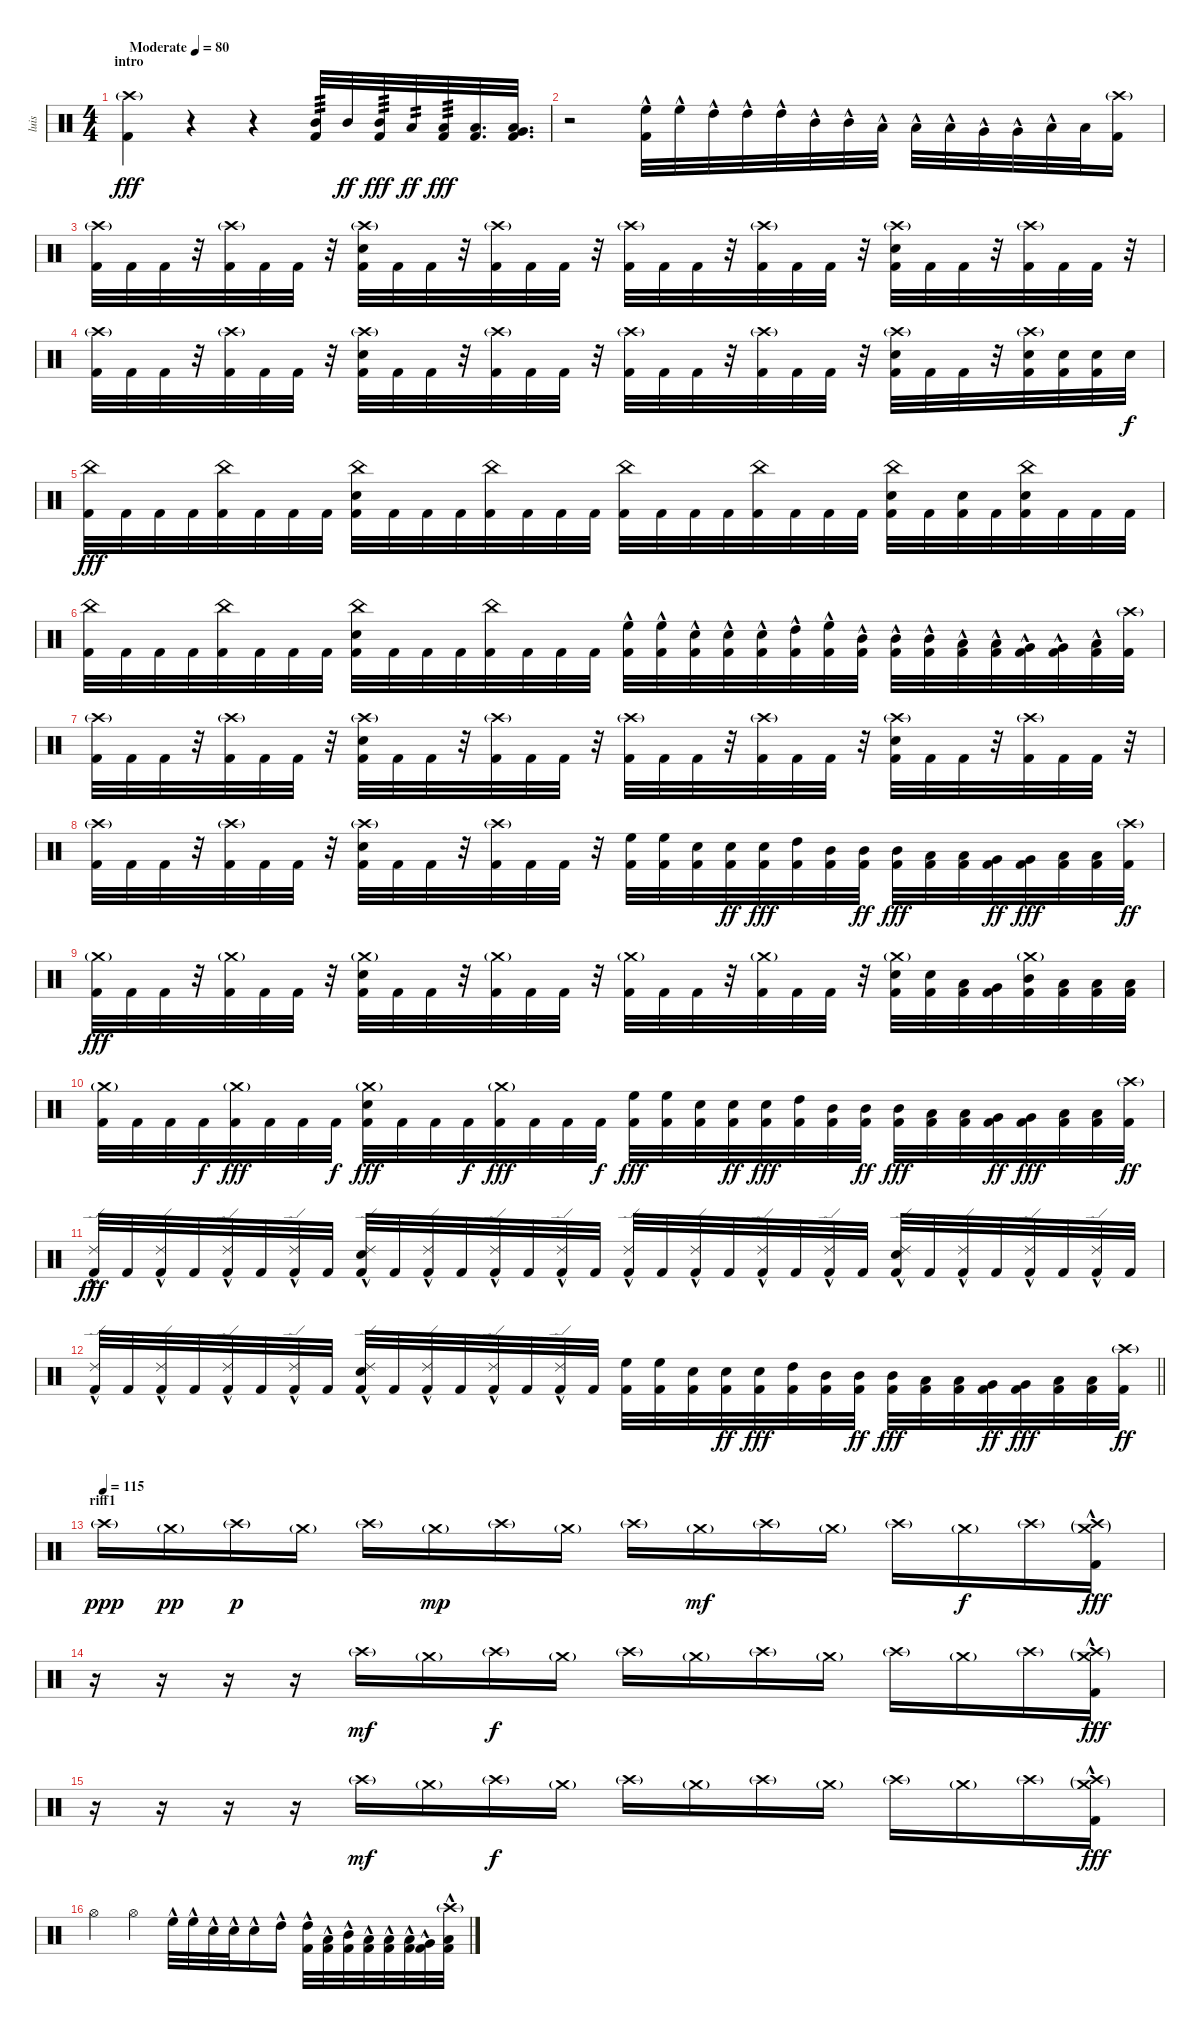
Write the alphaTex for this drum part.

\track ("luis" "luis") {instrument percussion}
\staff {score}
\articulation defaults
\ts (4 4)
\section ("" "intro")
\tempo (80 "Moderate")
\clef neutral
\ks c
("Crash high (hit)"{g} "Kick (hit) 2").4{dy fff} r.4 r.4 ("Mid Tom (hit)" "Kick (hit) 2").32{tp 3} "Mid Tom (hit)".32{dy ff} ("Mid Tom (hit)" "Kick (hit) 2").32{tp 3 dy fff} "Low Tom (hit)".32{tp 2 dy ff} ("Low Tom (hit)" "Kick (hit) 2").32{tp 3 dy fff} ("Low Floor Tom (hit)" "Kick (hit) 2").32{d} ("Low Floor Tom (hit)" "Very Low Tom (hit)" "Kick (hit) 2").32{d} |
r.2 ("High Floor Tom (hit)"{hac} "Kick (hit) 2").32 "High Floor Tom (hit)"{hac}.32 "High Tom (hit)"{hac}.32 "High Tom (hit)"{hac}.32 "High Tom (hit)"{hac}.32 "Mid Tom (hit)"{hac}.32 "Mid Tom (hit)"{hac}.32 "Low Tom (hit)"{hac}.32 "Low Tom (hit)"{hac}.32 "Low Tom (hit)"{hac}.32 "Very Low Tom (hit)"{hac}.32 "Very Low Tom (hit)"{hac}.32 "Low Floor Tom (hit)"{hac}.32 "Low Floor Tom (hit)".32 ("Crash high (hit)"{g} "Kick (hit) 2").16 |
("Crash high (hit)"{g} "Kick (hit) 2").32 "Kick (hit) 2".32 "Kick (hit) 2".32 r.32 ("Crash high (hit)"{g} "Kick (hit) 2").32 "Kick (hit) 2".32 "Kick (hit) 2".32 r.32 ("Crash high (hit)"{g} "Electric Snare (hit)" "Kick (hit) 2").32 "Kick (hit) 2".32 "Kick (hit) 2".32 r.32 ("Crash high (hit)"{g} "Kick (hit) 2").32 "Kick (hit) 2".32 "Kick (hit) 2".32 r.32 ("Crash high (hit)"{g} "Kick (hit) 2").32 "Kick (hit) 2".32 "Kick (hit) 2".32 r.32 ("Crash high (hit)"{g} "Kick (hit) 2").32 "Kick (hit) 2".32 "Kick (hit) 2".32 r.32 ("Crash high (hit)"{g} "Electric Snare (hit)" "Kick (hit) 2").32 "Kick (hit) 2".32 "Kick (hit) 2".32 r.32 ("Crash high (hit)"{g} "Kick (hit) 2").32 "Kick (hit) 2".32 "Kick (hit) 2".32 r.32 |
("Crash high (hit)"{g} "Kick (hit) 2").32 "Kick (hit) 2".32 "Kick (hit) 2".32 r.32 ("Crash high (hit)"{g} "Kick (hit) 2").32 "Kick (hit) 2".32 "Kick (hit) 2".32 r.32 ("Crash high (hit)"{g} "Electric Snare (hit)" "Kick (hit) 2").32 "Kick (hit) 2".32 "Kick (hit) 2".32 r.32 ("Crash high (hit)"{g} "Kick (hit) 2").32 "Kick (hit) 2".32 "Kick (hit) 2".32 r.32 ("Crash high (hit)"{g} "Kick (hit) 2").32 "Kick (hit) 2".32 "Kick (hit) 2".32 r.32 ("Crash high (hit)"{g} "Kick (hit) 2").32 "Kick (hit) 2".32 "Kick (hit) 2".32 r.32 ("Crash high (hit)"{g} "Electric Snare (hit)" "Kick (hit) 2").32 "Kick (hit) 2".32 "Kick (hit) 2".32 r.32 ("Crash high (hit)"{g} "Electric Snare (hit)" "Kick (hit) 2").32 ("Electric Snare (hit)" "Kick (hit) 2").32 ("Electric Snare (hit)" "Kick (hit) 2").32 "Electric Snare (hit)".32{dy f} |
("China (hit)" "Kick (hit) 2").32{dy fff} "Kick (hit) 2".32 "Kick (hit) 2".32 "Kick (hit) 2".32 ("China (hit)" "Kick (hit) 2").32 "Kick (hit) 2".32 "Kick (hit) 2".32 "Kick (hit) 2".32 ("China (hit)" "Electric Snare (hit)" "Kick (hit) 2").32 "Kick (hit) 2".32 "Kick (hit) 2".32 "Kick (hit) 2".32 ("China (hit)" "Kick (hit) 2").32 "Kick (hit) 2".32 "Kick (hit) 2".32 "Kick (hit) 2".32 ("China (hit)" "Kick (hit) 2").32 "Kick (hit) 2".32 "Kick (hit) 2".32 "Kick (hit) 2".32 ("China (hit)" "Kick (hit) 2").32 "Kick (hit) 2".32 "Kick (hit) 2".32 "Kick (hit) 2".32 ("China (hit)" "Electric Snare (hit)" "Kick (hit) 2").32 "Kick (hit) 2".32 ("Electric Snare (hit)" "Kick (hit) 2").32 "Kick (hit) 2".32 ("China (hit)" "Electric Snare (hit)" "Kick (hit) 2").32 "Kick (hit) 2".32 "Kick (hit) 2".32 "Kick (hit) 2".32 |
("China (hit)" "Kick (hit) 2").32 "Kick (hit) 2".32 "Kick (hit) 2".32 "Kick (hit) 2".32 ("China (hit)" "Kick (hit) 2").32 "Kick (hit) 2".32 "Kick (hit) 2".32 "Kick (hit) 2".32 ("China (hit)" "Electric Snare (hit)" "Kick (hit) 2").32 "Kick (hit) 2".32 "Kick (hit) 2".32 "Kick (hit) 2".32 ("China (hit)" "Kick (hit) 2").32 "Kick (hit) 2".32 "Kick (hit) 2".32 "Kick (hit) 2".32 ("High Floor Tom (hit)"{hac} "Kick (hit) 2").32 ("High Floor Tom (hit)"{hac} "Kick (hit) 2").32 ("Electric Snare (hit)"{hac} "Kick (hit) 2").32 ("Electric Snare (hit)"{hac} "Kick (hit) 2").32 ("Electric Snare (hit)"{hac} "Kick (hit) 2").32 ("High Tom (hit)"{hac} "Kick (hit) 2").32 ("High Floor Tom (hit)"{hac} "Kick (hit) 2").32 ("Mid Tom (hit)"{hac} "Kick (hit) 2").32 ("Mid Tom (hit)"{hac} "Kick (hit) 2").32 ("Mid Tom (hit)"{hac} "Kick (hit) 2").32 ("Low Tom (hit)"{hac} "Kick (hit) 2").32 ("Low Tom (hit)"{hac} "Kick (hit) 2").32 ("Very Low Tom (hit)"{hac} "Kick (hit) 2").32 ("Very Low Tom (hit)"{hac} "Kick (hit) 2").32 ("Low Floor Tom (hit)"{hac} "Kick (hit) 2").32 ("Crash high (hit)"{g} "Kick (hit) 2").32 |
("Crash high (hit)"{g} "Kick (hit) 2").32 "Kick (hit) 2".32 "Kick (hit) 2".32 r.32 ("Crash high (hit)"{g} "Kick (hit) 2").32 "Kick (hit) 2".32 "Kick (hit) 2".32 r.32 ("Crash high (hit)"{g} "Electric Snare (hit)" "Kick (hit) 2").32 "Kick (hit) 2".32 "Kick (hit) 2".32 r.32 ("Crash high (hit)"{g} "Kick (hit) 2").32 "Kick (hit) 2".32 "Kick (hit) 2".32 r.32 ("Crash high (hit)"{g} "Kick (hit) 2").32 "Kick (hit) 2".32 "Kick (hit) 2".32 r.32 ("Crash high (hit)"{g} "Kick (hit) 2").32 "Kick (hit) 2".32 "Kick (hit) 2".32 r.32 ("Crash high (hit)"{g} "Electric Snare (hit)" "Kick (hit) 2").32 "Kick (hit) 2".32 "Kick (hit) 2".32 r.32 ("Crash high (hit)"{g} "Kick (hit) 2").32 "Kick (hit) 2".32 "Kick (hit) 2".32 r.32 |
("Crash high (hit)"{g} "Kick (hit) 2").32 "Kick (hit) 2".32 "Kick (hit) 2".32 r.32 ("Crash high (hit)"{g} "Kick (hit) 2").32 "Kick (hit) 2".32 "Kick (hit) 2".32 r.32 ("Crash high (hit)"{g} "Electric Snare (hit)" "Kick (hit) 2").32 "Kick (hit) 2".32 "Kick (hit) 2".32 r.32 ("Crash high (hit)"{g} "Kick (hit) 2").32 "Kick (hit) 2".32 "Kick (hit) 2".32 r.32 ("High Floor Tom (hit)" "Kick (hit) 2").32 ("High Floor Tom (hit)" "Kick (hit) 2").32 ("Electric Snare (hit)" "Kick (hit) 2").32 ("Electric Snare (hit)" "Kick (hit) 2").32{dy ff} ("Electric Snare (hit)" "Kick (hit) 2").32{dy fff} ("High Tom (hit)" "Kick (hit) 2").32 ("Mid Tom (hit)" "Kick (hit) 2").32 ("Mid Tom (hit)" "Kick (hit) 2").32{dy ff} ("Mid Tom (hit)" "Kick (hit) 2").32{dy fff} ("Low Tom (hit)" "Kick (hit) 2").32 ("Low Tom (hit)" "Kick (hit) 2").32 ("Very Low Tom (hit)" "Kick (hit) 2").32{dy ff} ("Very Low Tom (hit)" "Kick (hit) 2").32{dy fff} ("Low Floor Tom (hit)" "Kick (hit) 2").32 ("Low Floor Tom (hit)" "Kick (hit) 2").32 ("Crash high (hit)"{g} "Kick (hit) 2").32{dy ff} |
("Crash medium (hit)"{g} "Kick (hit) 2").32{dy fff} "Kick (hit) 2".32 "Kick (hit) 2".32 r.32 ("Crash medium (hit)"{g} "Kick (hit) 2").32 "Kick (hit) 2".32 "Kick (hit) 2".32 r.32 ("Crash medium (hit)"{g} "Electric Snare (hit)" "Kick (hit) 2").32 "Kick (hit) 2".32 "Kick (hit) 2".32 r.32 ("Crash medium (hit)"{g} "Kick (hit) 2").32 "Kick (hit) 2".32 "Kick (hit) 2".32 r.32 ("Crash medium (hit)"{g} "Kick (hit) 2").32 "Kick (hit) 2".32 "Kick (hit) 2".32 r.32 ("Crash medium (hit)"{g} "Kick (hit) 2").32 "Kick (hit) 2".32 "Kick (hit) 2".32 r.32 ("Crash medium (hit)"{g} "Electric Snare (hit)" "Kick (hit) 2").32 ("Electric Snare (hit)" "Kick (hit) 2").32 ("Low Tom (hit)" "Kick (hit) 2").32 ("Very Low Tom (hit)" "Kick (hit) 2").32 ("Crash medium (hit)"{g} "Mid Tom (hit)" "Kick (hit) 2").32 ("Low Floor Tom (hit)" "Kick (hit) 2").32 ("Low Tom (hit)" "Kick (hit) 2").32 ("Low Floor Tom (hit)" "Kick (hit) 2").32 |
("Crash medium (hit)"{g} "Kick (hit) 2").32 "Kick (hit) 2".32 "Kick (hit) 2".32 "Kick (hit) 2".32{dy f} ("Crash medium (hit)"{g} "Kick (hit) 2").32{dy fff} "Kick (hit) 2".32 "Kick (hit) 2".32 "Kick (hit) 2".32{dy f} ("Crash medium (hit)"{g} "Electric Snare (hit)" "Kick (hit) 2").32{dy fff} "Kick (hit) 2".32 "Kick (hit) 2".32 "Kick (hit) 2".32{dy f} ("Crash medium (hit)"{g} "Kick (hit) 2").32{dy fff} "Kick (hit) 2".32 "Kick (hit) 2".32 "Kick (hit) 2".32{dy f} ("High Floor Tom (hit)" "Kick (hit) 2").32{dy fff} ("High Floor Tom (hit)" "Kick (hit) 2").32 ("Electric Snare (hit)" "Kick (hit) 2").32 ("Electric Snare (hit)" "Kick (hit) 2").32{dy ff} ("Electric Snare (hit)" "Kick (hit) 2").32{dy fff} ("High Tom (hit)" "Kick (hit) 2").32 ("Mid Tom (hit)" "Kick (hit) 2").32 ("Mid Tom (hit)" "Kick (hit) 2").32{dy ff} ("Mid Tom (hit)" "Kick (hit) 2").32{dy fff} ("Low Tom (hit)" "Kick (hit) 2").32 ("Low Tom (hit)" "Kick (hit) 2").32 ("Very Low Tom (hit)" "Kick (hit) 2").32{dy ff} ("Very Low Tom (hit)" "Kick (hit) 2").32{dy fff} ("Low Floor Tom (hit)" "Kick (hit) 2").32 ("Low Floor Tom (hit)" "Kick (hit) 2").32 ("Crash high (hit)"{g} "Kick (hit) 2").32{dy ff} |
("Ride (edge) 2"{hac} "Kick (hit) 2").32{dy fff} "Kick (hit) 2".32 ("Ride (edge) 2"{hac} "Kick (hit) 2").32 "Kick (hit) 2".32 ("Ride (edge) 2"{hac} "Kick (hit) 2").32 "Kick (hit) 2".32 ("Ride (edge) 2"{hac} "Kick (hit) 2").32 "Kick (hit) 2".32 ("Ride (edge) 2"{hac} "Electric Snare (hit)" "Kick (hit) 2").32 "Kick (hit) 2".32 ("Ride (edge) 2"{hac} "Kick (hit) 2").32 "Kick (hit) 2".32 ("Ride (edge) 2"{hac} "Kick (hit) 2").32 "Kick (hit) 2".32 ("Ride (edge) 2"{hac} "Kick (hit) 2").32 "Kick (hit) 2".32 ("Ride (edge) 2"{hac} "Kick (hit) 2").32 "Kick (hit) 2".32 ("Ride (edge) 2"{hac} "Kick (hit) 2").32 "Kick (hit) 2".32 ("Ride (edge) 2"{hac} "Kick (hit) 2").32 "Kick (hit) 2".32 ("Ride (edge) 2"{hac} "Kick (hit) 2").32 "Kick (hit) 2".32 ("Ride (edge) 2"{hac} "Electric Snare (hit)" "Kick (hit) 2").32 "Kick (hit) 2".32 ("Ride (edge) 2"{hac} "Kick (hit) 2").32 "Kick (hit) 2".32 ("Ride (edge) 2"{hac} "Kick (hit) 2").32 "Kick (hit) 2".32 ("Ride (edge) 2"{hac} "Kick (hit) 2").32 "Kick (hit) 2".32 |
\barLineRight lightlight
("Ride (edge) 2"{hac} "Kick (hit) 2").32 "Kick (hit) 2".32 ("Ride (edge) 2"{hac} "Kick (hit) 2").32 "Kick (hit) 2".32 ("Ride (edge) 2"{hac} "Kick (hit) 2").32 "Kick (hit) 2".32 ("Ride (edge) 2"{hac} "Kick (hit) 2").32 "Kick (hit) 2".32 ("Ride (edge) 2"{hac} "Electric Snare (hit)" "Kick (hit) 2").32 "Kick (hit) 2".32 ("Ride (edge) 2"{hac} "Kick (hit) 2").32 "Kick (hit) 2".32 ("Ride (edge) 2"{hac} "Kick (hit) 2").32 "Kick (hit) 2".32 ("Ride (edge) 2"{hac} "Kick (hit) 2").32 "Kick (hit) 2".32 ("High Floor Tom (hit)" "Kick (hit) 2").32 ("High Floor Tom (hit)" "Kick (hit) 2").32 ("Electric Snare (hit)" "Kick (hit) 2").32 ("Electric Snare (hit)" "Kick (hit) 2").32{dy ff} ("Electric Snare (hit)" "Kick (hit) 2").32{dy fff} ("High Tom (hit)" "Kick (hit) 2").32 ("Mid Tom (hit)" "Kick (hit) 2").32 ("Mid Tom (hit)" "Kick (hit) 2").32{dy ff} ("Mid Tom (hit)" "Kick (hit) 2").32{dy fff} ("Low Tom (hit)" "Kick (hit) 2").32 ("Low Tom (hit)" "Kick (hit) 2").32 ("Very Low Tom (hit)" "Kick (hit) 2").32{dy ff} ("Very Low Tom (hit)" "Kick (hit) 2").32{dy fff} ("Low Floor Tom (hit)" "Kick (hit) 2").32 ("Low Floor Tom (hit)" "Kick (hit) 2").32 ("Crash high (hit)"{g} "Kick (hit) 2").32{dy ff} |
\section ("" "riff1")
\tempo (115)
"Crash high (hit)"{g}.16{dy ppp} "Crash medium (hit)"{g}.16{dy pp} "Crash high (hit)"{g}.16{dy p} "Crash medium (hit)"{g}.16 "Crash high (hit)"{g}.16 "Crash medium (hit)"{g}.16{dy mp} "Crash high (hit)"{g}.16 "Crash medium (hit)"{g}.16 "Crash high (hit)"{g}.16 "Crash medium (hit)"{g}.16{dy mf} "Crash high (hit)"{g}.16 "Crash medium (hit)"{g}.16 "Crash high (hit)"{g}.16 "Crash medium (hit)"{g}.16{dy f} "Crash high (hit)"{g}.16 ("Crash medium (hit)"{g} "Crash high (hit)"{g} "Kick (hit) 2"{hac}).16{dy fff} |
r.16 r.16 r.16 r.16 "Crash high (hit)"{g}.16{dy mf} "Crash medium (hit)"{g}.16 "Crash high (hit)"{g}.16{dy f} "Crash medium (hit)"{g}.16 "Crash high (hit)"{g}.16 "Crash medium (hit)"{g}.16 "Crash high (hit)"{g}.16 "Crash medium (hit)"{g}.16 "Crash high (hit)"{g}.16 "Crash medium (hit)"{g}.16 "Crash high (hit)"{g}.16 ("Crash medium (hit)"{g} "Crash high (hit)"{g} "Kick (hit) 2"{hac}).16{dy fff} |
r.16 r.16 r.16 r.16 "Crash high (hit)"{g}.16{dy mf} "Crash medium (hit)"{g}.16 "Crash high (hit)"{g}.16{dy f} "Crash medium (hit)"{g}.16 "Crash high (hit)"{g}.16 "Crash medium (hit)"{g}.16 "Crash high (hit)"{g}.16 "Crash medium (hit)"{g}.16 "Crash high (hit)"{g}.16 "Crash medium (hit)"{g}.16 "Crash high (hit)"{g}.16 ("Crash medium (hit)"{g} "Crash high (hit)"{g} "Kick (hit) 2"{hac}).16{dy fff} |
"Hi-Hat (open)".4 "Hi-Hat (open)".4 "High Floor Tom (hit)"{hac}.32 "High Floor Tom (hit)"{hac}.32 "Electric Snare (hit)"{hac}.32 "Electric Snare (hit)"{hac}.32 "Electric Snare (hit)"{hac}.16 "High Tom (hit)"{hac}.16 ("High Tom (hit)"{hac} "Kick (hit) 2").32 ("Low Tom (hit)"{hac} "Kick (hit) 2").32 ("Mid Tom (hit)"{hac} "Kick (hit) 2").32 ("Low Tom (hit)"{hac} "Kick (hit) 2").32 ("Low Tom (hit)"{hac} "Kick (hit) 2").32 ("Low Tom (hit)"{hac} "Kick (hit) 2").32 ("Very Low Tom (hit)"{hac} "Kick (hit) 2").32 ("Crash high (hit)"{g} "Low Floor Tom (hit)"{hac} "Kick (hit) 2").32
